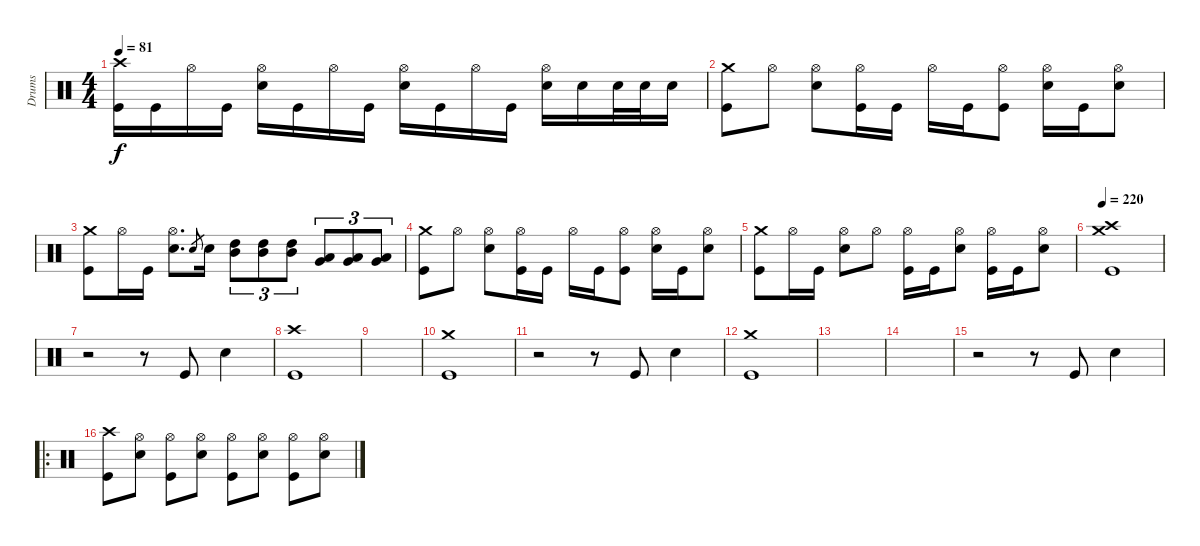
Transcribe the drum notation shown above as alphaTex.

\track ("Drums" "Drums") {instrument percussion}
\staff {score}
\articulation defaults
\ts (4 4)
\tempo 81
\clef neutral
\ks c
("Crash high (hit)" "Kick (hit)").16{dy f} "Kick (hit)".16 "Hi-Hat (open)".16 "Kick (hit)".16 ("Hi-Hat (open)" "Snare (hit) 2").16 "Kick (hit)".16 "Hi-Hat (open)".16 "Kick (hit)".16 ("Hi-Hat (open)" "Snare (hit) 2").16 "Kick (hit)".16 "Hi-Hat (open)".16 "Kick (hit)".16 ("Hi-Hat (open)" "Snare (hit) 2").16 "Snare (hit) 2".16 "Snare (hit) 2".32 "Snare (hit) 2".32 "Snare (hit) 2".16 |
("Crash medium (hit)" "Kick (hit)").8 "Hi-Hat (open)".8 ("Hi-Hat (open)" "Snare (hit) 2").8 ("Hi-Hat (open)" "Kick (hit)").16 "Kick (hit)".16 "Hi-Hat (open)".16 "Kick (hit)".16 ("Hi-Hat (open)" "Kick (hit)").8 ("Hi-Hat (open)" "Snare (hit) 2").16 "Kick (hit)".16 ("Hi-Hat (open)" "Snare (hit) 2").8 |
("Crash medium (hit)" "Kick (hit)").8 "Hi-Hat (open)".16 "Kick (hit)".16 ("Hi-Hat (open)" "Snare (hit) 2").8{d} "Snare (hit) 2".8{gr} "Snare (hit) 2".16 ("Mid Tom (hit)" "High Tom (hit)").8{tu (3 2)} ("Mid Tom (hit)" "High Tom (hit)").8{tu (3 2)} ("Mid Tom (hit)" "High Tom (hit)").8{tu (3 2)} ("Very Low Tom (hit)" "Low Tom (hit)").8{tu (3 2)} ("Very Low Tom (hit)" "Low Tom (hit)").8{tu (3 2)} ("Very Low Tom (hit)" "Low Tom (hit)").8{tu (3 2)} |
("Crash medium (hit)" "Kick (hit)").8 "Hi-Hat (open)".8 ("Hi-Hat (open)" "Snare (hit) 2").8 ("Hi-Hat (open)" "Kick (hit)").16 "Kick (hit)".16 "Hi-Hat (open)".16 "Kick (hit)".16 ("Hi-Hat (open)" "Kick (hit)").8 ("Hi-Hat (open)" "Snare (hit) 2").16 "Kick (hit)".16 ("Hi-Hat (open)" "Snare (hit) 2").8 |
("Crash medium (hit)" "Kick (hit)").8 "Hi-Hat (open)".16 "Kick (hit)".16 ("Hi-Hat (open)" "Snare (hit) 2").8 "Hi-Hat (open)".8 ("Hi-Hat (open)" "Kick (hit)").16 "Kick (hit)".16 ("Hi-Hat (open)" "Snare (hit) 2").8 ("Hi-Hat (open)" "Kick (hit)").16 "Kick (hit)".16 ("Hi-Hat (open)" "Snare (hit) 2").8 |
\tempo 220
("Crash medium (hit)" "Crash high (hit)" "Kick (hit)").1 |
r.2 r.8 "Kick (hit)".8 "Snare (hit) 2".4 |
("Crash high (hit)" "Kick (hit)").1 |
|
("Crash medium (hit)" "Kick (hit)").1 |
r.2 r.8 "Kick (hit)".8 "Snare (hit) 2".4 |
("Crash medium (hit)" "Kick (hit)").1 |
|
|
r.2 r.8 "Kick (hit)".8 "Snare (hit) 2".4 |
\ro
("Crash high (hit)" "Kick (hit)").8 ("Hi-Hat (open)" "Snare (hit) 2").8 ("Hi-Hat (open)" "Kick (hit)").8 ("Hi-Hat (open)" "Snare (hit) 2").8 ("Hi-Hat (open)" "Kick (hit)").8 ("Hi-Hat (open)" "Snare (hit) 2").8 ("Hi-Hat (open)" "Kick (hit)").8 ("Hi-Hat (open)" "Snare (hit) 2").8
